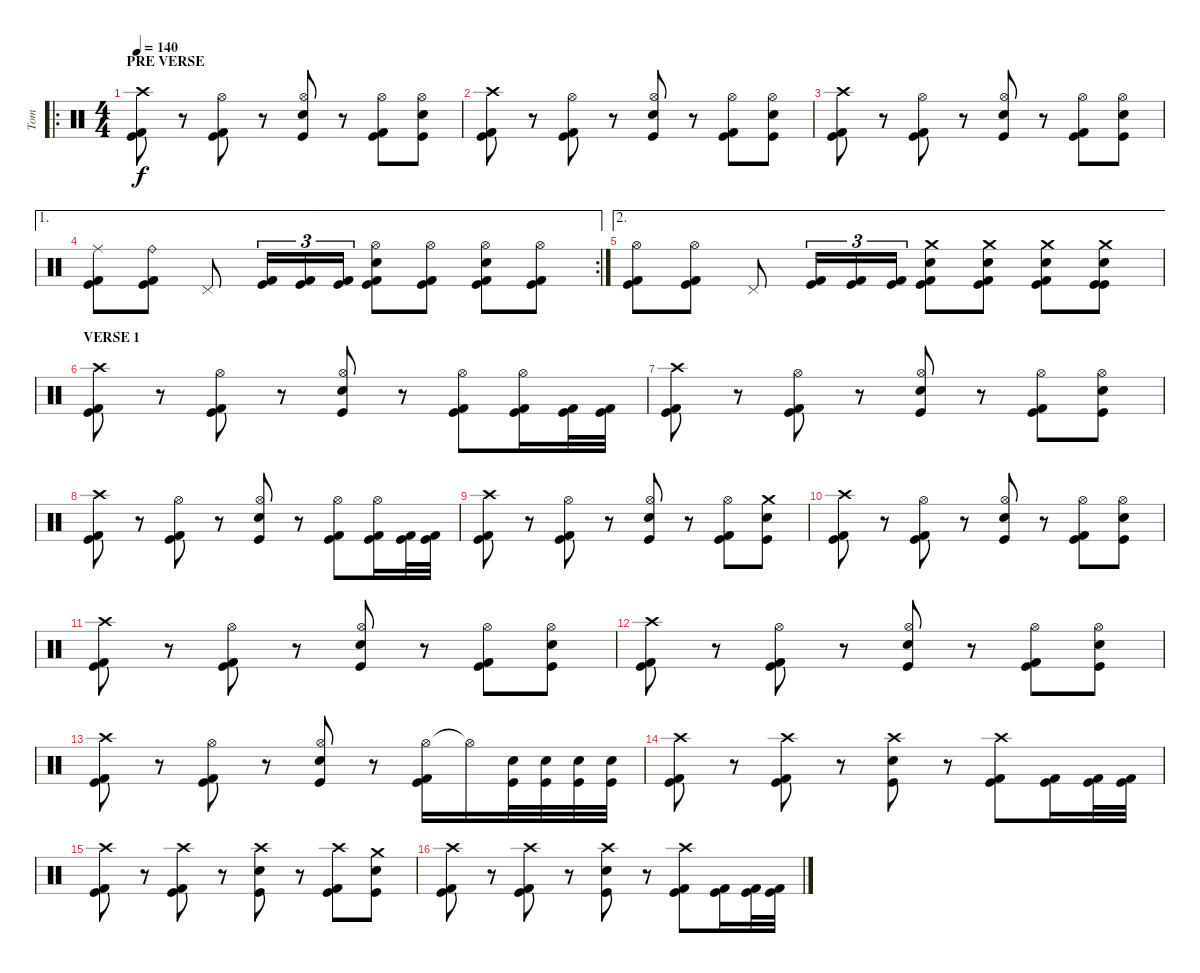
\track ("Tom" "Tom") {instrument percussion}
\staff {score}
\articulation defaults
\ro
\ts (4 4)
\section ("" "PRE VERSE")
\tempo 140
\clef neutral
\ks c
("Crash high (hit)" "Kick (hit)" "Kick (hit) 2").8{dy f} r.8 ("Hi-Hat (open)" "Kick (hit)" "Kick (hit) 2").8 r.8 ("Hi-Hat (open)" "Kick (hit)" "Electric Snare (hit)").8 r.8 ("Hi-Hat (open)" "Kick (hit)" "Kick (hit) 2").8 ("Hi-Hat (open)" "Kick (hit)" "Electric Snare (hit)").8 |
("Crash high (hit)" "Kick (hit)" "Kick (hit) 2").8 r.8 ("Hi-Hat (open)" "Kick (hit)" "Kick (hit) 2").8 r.8 ("Hi-Hat (open)" "Kick (hit)" "Electric Snare (hit)").8 r.8 ("Hi-Hat (open)" "Kick (hit)" "Kick (hit) 2").8 ("Hi-Hat (open)" "Kick (hit)" "Electric Snare (hit)").8 |
("Crash high (hit)" "Kick (hit)" "Kick (hit) 2").8 r.8 ("Hi-Hat (open)" "Kick (hit)" "Kick (hit) 2").8 r.8 ("Hi-Hat (open)" "Kick (hit)" "Electric Snare (hit)").8 r.8 ("Hi-Hat (open)" "Kick (hit)" "Kick (hit) 2").8 ("Hi-Hat (open)" "Kick (hit)" "Electric Snare (hit)").8 |
\ae 1
\rc 2
("Ride (middle)" "Kick (hit)" "Kick (hit) 2").8 ("Ride (bell)" "Kick (hit)" "Kick (hit) 2").8 "Pedal Hi-Hat (hit)".8 ("Kick (hit)" "Kick (hit) 2").16{tu (3 2)} ("Kick (hit)" "Kick (hit) 2").16{tu (3 2)} ("Kick (hit)" "Kick (hit) 2").16{tu (3 2)} ("Hi-Hat (open)" "Kick (hit) 2" "Kick (hit)" "Electric Snare (hit)").8 ("Hi-Hat (open)" "Kick (hit)" "Kick (hit) 2").8 ("Hi-Hat (open)" "Kick (hit) 2" "Kick (hit)" "Electric Snare (hit)").8 ("Hi-Hat (open)" "Kick (hit)" "Kick (hit) 2").8 |
\ae 2
("Hi-Hat (open)" "Kick (hit)" "Kick (hit) 2").8 ("Hi-Hat (open)" "Kick (hit)" "Kick (hit) 2").8 "Pedal Hi-Hat (hit)".8 ("Kick (hit)" "Kick (hit) 2").16{tu (3 2)} ("Kick (hit)" "Kick (hit) 2").16{tu (3 2)} ("Kick (hit)" "Kick (hit) 2").16{tu (3 2)} ("Crash medium (hit)" "Kick (hit) 2" "Kick (hit)" "Electric Snare (hit)").8 ("Crash medium (hit)" "Kick (hit) 2" "Kick (hit)" "Electric Snare (hit)").8 ("Crash medium (hit)" "Kick (hit) 2" "Kick (hit)" "Electric Snare (hit)").8 ("Crash medium (hit)" "Kick (hit)" "Kick (hit)" "Electric Snare (hit)").8 |
\section ("" "VERSE 1")
("Crash high (hit)" "Kick (hit)" "Kick (hit) 2").8 r.8 ("Hi-Hat (open)" "Kick (hit)" "Kick (hit) 2").8 r.8 ("Hi-Hat (open)" "Kick (hit)" "Electric Snare (hit)").8 r.8 ("Hi-Hat (open)" "Kick (hit)" "Kick (hit) 2").8 ("Hi-Hat (open)" "Kick (hit)" "Kick (hit) 2").16 ("Kick (hit)" "Kick (hit) 2").32 ("Kick (hit)" "Kick (hit) 2").32 |
("Crash high (hit)" "Kick (hit)" "Kick (hit) 2").8 r.8 ("Hi-Hat (open)" "Kick (hit)" "Kick (hit) 2").8 r.8 ("Hi-Hat (open)" "Kick (hit)" "Electric Snare (hit)").8 r.8 ("Hi-Hat (open)" "Kick (hit)" "Kick (hit) 2").8 ("Hi-Hat (open)" "Kick (hit)" "Electric Snare (hit)").8 |
("Crash high (hit)" "Kick (hit)" "Kick (hit) 2").8 r.8 ("Hi-Hat (open)" "Kick (hit)" "Kick (hit) 2").8 r.8 ("Hi-Hat (open)" "Kick (hit)" "Electric Snare (hit)").8 r.8 ("Hi-Hat (open)" "Kick (hit)" "Kick (hit) 2").8 ("Hi-Hat (open)" "Kick (hit)" "Kick (hit) 2").16 ("Kick (hit)" "Kick (hit) 2").32 ("Kick (hit)" "Kick (hit) 2").32 |
("Crash high (hit)" "Kick (hit)" "Kick (hit) 2").8 r.8 ("Hi-Hat (open)" "Kick (hit)" "Kick (hit) 2").8 r.8 ("Hi-Hat (open)" "Kick (hit)" "Electric Snare (hit)").8 r.8 ("Hi-Hat (open)" "Kick (hit)" "Kick (hit) 2").8 ("Crash medium (hit)" "Kick (hit)" "Electric Snare (hit)").8 |
("Crash high (hit)" "Kick (hit)" "Kick (hit) 2").8 r.8 ("Hi-Hat (open)" "Kick (hit)" "Kick (hit) 2").8 r.8 ("Hi-Hat (open)" "Kick (hit)" "Electric Snare (hit)").8 r.8 ("Hi-Hat (open)" "Kick (hit)" "Kick (hit) 2").8 ("Hi-Hat (open)" "Kick (hit)" "Electric Snare (hit)").8 |
("Crash high (hit)" "Kick (hit)" "Kick (hit) 2").8 r.8 ("Hi-Hat (open)" "Kick (hit)" "Kick (hit) 2").8 r.8 ("Hi-Hat (open)" "Kick (hit)" "Electric Snare (hit)").8 r.8 ("Hi-Hat (open)" "Kick (hit)" "Kick (hit) 2").8 ("Hi-Hat (open)" "Kick (hit)" "Electric Snare (hit)").8 |
("Crash high (hit)" "Kick (hit)" "Kick (hit) 2").8 r.8 ("Hi-Hat (open)" "Kick (hit)" "Kick (hit) 2").8 r.8 ("Hi-Hat (open)" "Kick (hit)" "Electric Snare (hit)").8 r.8 ("Hi-Hat (open)" "Kick (hit)" "Kick (hit) 2").8 ("Hi-Hat (open)" "Kick (hit)" "Electric Snare (hit)").8 |
("Crash high (hit)" "Kick (hit)" "Kick (hit) 2").8 r.8 ("Hi-Hat (open)" "Kick (hit)" "Kick (hit) 2").8 r.8 ("Hi-Hat (open)" "Kick (hit)" "Electric Snare (hit)").8 r.8 ("Hi-Hat (open)" "Kick (hit)" "Kick (hit) 2").16 "Hi-Hat (open)"{t}.16 ("Kick (hit)" "Electric Snare (hit)").32 ("Kick (hit)" "Electric Snare (hit)").32 ("Kick (hit)" "Electric Snare (hit)").32 ("Kick (hit)" "Electric Snare (hit)").32 |
("Crash high (hit)" "Kick (hit)" "Kick (hit) 2").8 r.8 ("Crash high (hit)" "Kick (hit)" "Kick (hit) 2").8 r.8 ("Crash high (hit)" "Kick (hit)" "Electric Snare (hit)").8 r.8 ("Crash high (hit)" "Kick (hit)" "Kick (hit) 2").8 ("Kick (hit)" "Kick (hit) 2").16 ("Kick (hit)" "Kick (hit) 2").32 ("Kick (hit)" "Kick (hit) 2").32 |
("Crash high (hit)" "Kick (hit)" "Kick (hit) 2").8 r.8 ("Crash high (hit)" "Kick (hit)" "Kick (hit) 2").8 r.8 ("Crash high (hit)" "Kick (hit)" "Electric Snare (hit)").8 r.8 ("Crash high (hit)" "Kick (hit)" "Kick (hit) 2").8 ("Crash medium (hit)" "Kick (hit)" "Electric Snare (hit)").8 |
("Crash high (hit)" "Kick (hit)" "Kick (hit) 2").8 r.8 ("Crash high (hit)" "Kick (hit)" "Kick (hit) 2").8 r.8 ("Crash high (hit)" "Kick (hit)" "Electric Snare (hit)").8 r.8 ("Crash high (hit)" "Kick (hit)" "Kick (hit) 2").8 ("Kick (hit)" "Kick (hit) 2").16 ("Kick (hit)" "Kick (hit) 2").32 ("Kick (hit)" "Kick (hit) 2").32
